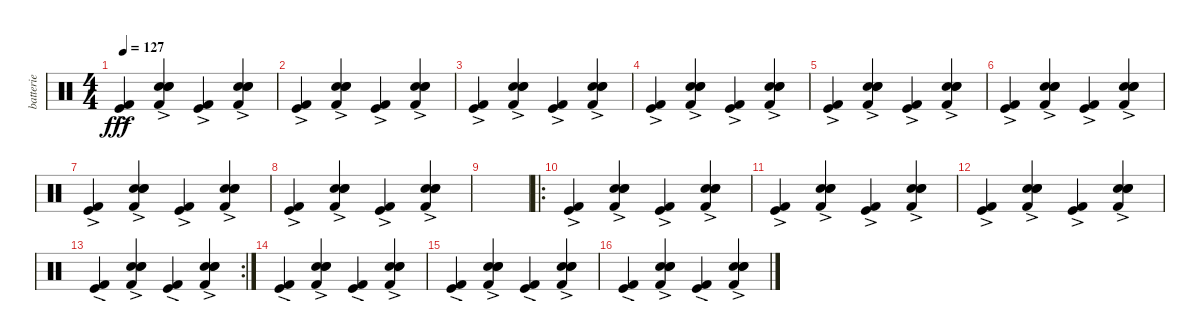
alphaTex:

\track ("batterie" "batterie") {instrument percussion}
\staff {score}
\articulation defaults
\ts (4 4)
\tempo 127
\clef neutral
\ks c
("Kick (hit) 2" "Kick (hit)"{ac}).4{dy fff} ("Hand Clap (hit)"{ac} "Kick (hit) 2" "Electric Snare (hit)" "Snare (hit) 2").4 ("Kick (hit) 2" "Kick (hit)"{ac}).4 ("Hand Clap (hit)"{ac} "Kick (hit) 2" "Electric Snare (hit)" "Snare (hit) 2").4 |
("Kick (hit) 2" "Kick (hit)"{ac}).4 ("Hand Clap (hit)"{ac} "Kick (hit) 2" "Electric Snare (hit)" "Snare (hit) 2").4 ("Kick (hit) 2" "Kick (hit)"{ac}).4 ("Hand Clap (hit)"{ac} "Kick (hit) 2" "Electric Snare (hit)" "Snare (hit) 2").4 |
("Kick (hit) 2" "Kick (hit)"{ac}).4 ("Hand Clap (hit)"{ac} "Kick (hit) 2" "Electric Snare (hit)" "Snare (hit) 2").4 ("Kick (hit) 2" "Kick (hit)"{ac}).4 ("Hand Clap (hit)"{ac} "Kick (hit) 2" "Electric Snare (hit)" "Snare (hit) 2").4 |
("Kick (hit) 2" "Kick (hit)"{ac}).4 ("Hand Clap (hit)"{ac} "Kick (hit) 2" "Electric Snare (hit)" "Snare (hit) 2").4 ("Kick (hit) 2" "Kick (hit)"{ac}).4 ("Hand Clap (hit)"{ac} "Kick (hit) 2" "Electric Snare (hit)" "Snare (hit) 2").4 |
("Kick (hit) 2" "Kick (hit)"{ac}).4 ("Hand Clap (hit)"{ac} "Kick (hit) 2" "Electric Snare (hit)" "Snare (hit) 2").4 ("Kick (hit) 2" "Kick (hit)"{ac}).4 ("Hand Clap (hit)"{ac} "Kick (hit) 2" "Electric Snare (hit)" "Snare (hit) 2").4 |
("Kick (hit) 2" "Kick (hit)"{ac}).4 ("Hand Clap (hit)"{ac} "Kick (hit) 2" "Electric Snare (hit)" "Snare (hit) 2").4 ("Kick (hit) 2" "Kick (hit)"{ac}).4 ("Hand Clap (hit)"{ac} "Kick (hit) 2" "Electric Snare (hit)" "Snare (hit) 2").4 |
("Kick (hit) 2" "Kick (hit)"{ac}).4 ("Hand Clap (hit)"{ac} "Kick (hit) 2" "Electric Snare (hit)" "Snare (hit) 2").4 ("Kick (hit) 2" "Kick (hit)"{ac}).4 ("Hand Clap (hit)"{ac} "Kick (hit) 2" "Electric Snare (hit)" "Snare (hit) 2").4 |
("Kick (hit) 2" "Kick (hit)"{ac}).4 ("Hand Clap (hit)"{ac} "Kick (hit) 2" "Electric Snare (hit)" "Snare (hit) 2").4 ("Kick (hit) 2" "Kick (hit)"{ac}).4 ("Hand Clap (hit)"{ac} "Kick (hit) 2" "Electric Snare (hit)" "Snare (hit) 2").4 |
|
\ro
("Kick (hit) 2" "Kick (hit)"{ac}).4 ("Hand Clap (hit)"{ac} "Kick (hit) 2" "Electric Snare (hit)" "Snare (hit) 2").4 ("Kick (hit) 2" "Kick (hit)"{ac}).4 ("Hand Clap (hit)"{ac} "Kick (hit) 2" "Electric Snare (hit)" "Snare (hit) 2").4 |
("Kick (hit) 2" "Kick (hit)"{ac}).4 ("Hand Clap (hit)"{ac} "Kick (hit) 2" "Electric Snare (hit)" "Snare (hit) 2").4 ("Kick (hit) 2" "Kick (hit)"{ac}).4 ("Hand Clap (hit)"{ac} "Kick (hit) 2" "Electric Snare (hit)" "Snare (hit) 2").4 |
("Kick (hit) 2" "Kick (hit)"{ac}).4 ("Hand Clap (hit)"{ac} "Kick (hit) 2" "Electric Snare (hit)" "Snare (hit) 2").4 ("Kick (hit) 2" "Kick (hit)"{ac}).4 ("Hand Clap (hit)"{ac} "Kick (hit) 2" "Electric Snare (hit)" "Snare (hit) 2").4 |
\rc 2
("Kick (hit) 2" "Kick (hit)"{ac}).4 ("Hand Clap (hit)"{ac} "Kick (hit) 2" "Electric Snare (hit)" "Snare (hit) 2").4 ("Kick (hit) 2" "Kick (hit)"{ac}).4 ("Hand Clap (hit)"{ac} "Kick (hit) 2" "Electric Snare (hit)" "Snare (hit) 2").4 |
("Kick (hit) 2" "Kick (hit)"{ac}).4 ("Hand Clap (hit)"{ac} "Kick (hit) 2" "Electric Snare (hit)" "Snare (hit) 2").4 ("Kick (hit) 2" "Kick (hit)"{ac}).4 ("Hand Clap (hit)"{ac} "Kick (hit) 2" "Electric Snare (hit)" "Snare (hit) 2").4 |
("Kick (hit) 2" "Kick (hit)"{ac}).4 ("Hand Clap (hit)"{ac} "Kick (hit) 2" "Electric Snare (hit)" "Snare (hit) 2").4 ("Kick (hit) 2" "Kick (hit)"{ac}).4 ("Hand Clap (hit)"{ac} "Kick (hit) 2" "Electric Snare (hit)" "Snare (hit) 2").4 |
("Kick (hit) 2" "Kick (hit)"{ac}).4 ("Hand Clap (hit)"{ac} "Kick (hit) 2" "Electric Snare (hit)" "Snare (hit) 2").4 ("Kick (hit) 2" "Kick (hit)"{ac}).4 ("Hand Clap (hit)"{ac} "Kick (hit) 2" "Electric Snare (hit)" "Snare (hit) 2").4
